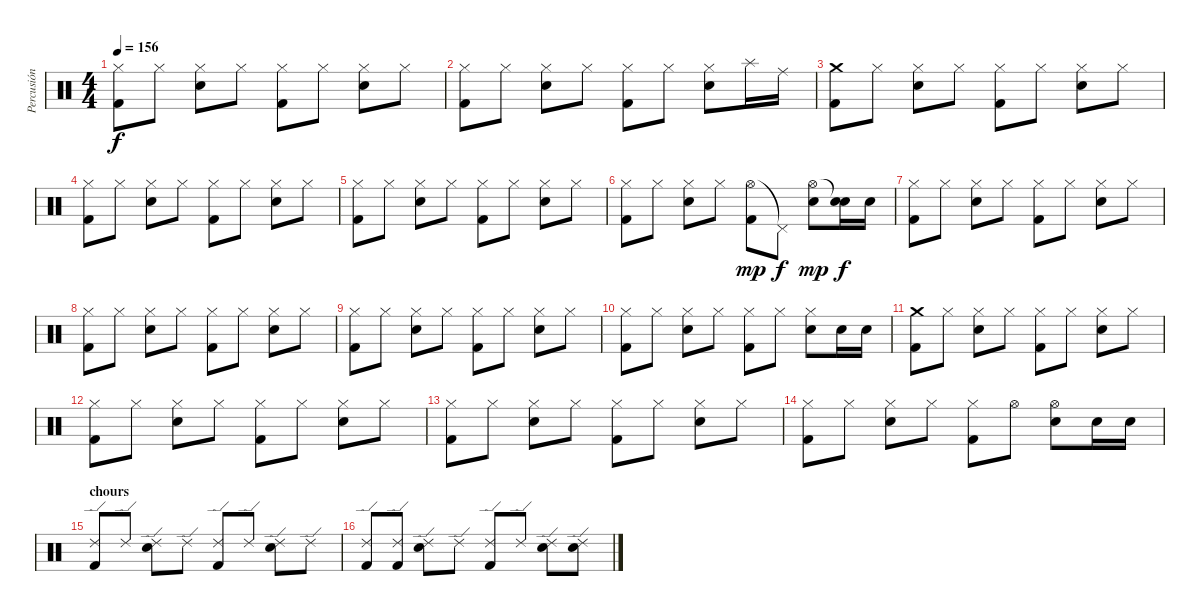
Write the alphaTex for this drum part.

\track ("Percusión" "Percusión") {instrument percussion}
\staff {score}
\articulation defaults
\ts (4 4)
\tempo 156
\clef neutral
\ks c
("Hi-Hat (closed)" "Kick (hit) 2").8{dy f} "Hi-Hat (closed)".8 ("Hi-Hat (closed)" "Electric Snare (hit)").8 "Hi-Hat (closed)".8 ("Hi-Hat (closed)" "Kick (hit) 2").8 "Hi-Hat (closed)".8 ("Hi-Hat (closed)" "Electric Snare (hit)").8 "Hi-Hat (closed)".8 |
("Hi-Hat (closed)" "Kick (hit) 2").8 "Hi-Hat (closed)".8 ("Hi-Hat (closed)" "Electric Snare (hit)").8 "Hi-Hat (closed)".8 ("Hi-Hat (closed)" "Kick (hit) 2").8 "Hi-Hat (closed)".8 ("Hi-Hat (closed)" "Electric Snare (hit)").8 "Splash (hit)".16 "Ride (middle)".16 |
("Crash medium (hit)" "Kick (hit) 2").8 "Hi-Hat (closed)".8 ("Hi-Hat (closed)" "Electric Snare (hit)").8 "Hi-Hat (closed)".8 ("Hi-Hat (closed)" "Kick (hit) 2").8 "Hi-Hat (closed)".8 ("Hi-Hat (closed)" "Electric Snare (hit)").8 "Hi-Hat (closed)".8 |
("Hi-Hat (closed)" "Kick (hit) 2").8 "Hi-Hat (closed)".8 ("Hi-Hat (closed)" "Electric Snare (hit)").8 "Hi-Hat (closed)".8 ("Hi-Hat (closed)" "Kick (hit) 2").8 "Hi-Hat (closed)".8 ("Hi-Hat (closed)" "Electric Snare (hit)").8 "Hi-Hat (closed)".8 |
("Hi-Hat (closed)" "Kick (hit) 2").8 "Hi-Hat (closed)".8 ("Hi-Hat (closed)" "Electric Snare (hit)").8 "Hi-Hat (closed)".8 ("Hi-Hat (closed)" "Kick (hit) 2").8 "Hi-Hat (closed)".8 ("Hi-Hat (closed)" "Electric Snare (hit)").8 "Hi-Hat (closed)".8 |
("Hi-Hat (closed)" "Kick (hit) 2").8 "Hi-Hat (closed)".8 ("Hi-Hat (closed)" "Electric Snare (hit)").8 "Hi-Hat (closed)".8 ("Hi-Hat (open)" "Kick (hit) 2").8{dy mp} "Pedal Hi-Hat (hit)"{t}.8{dy f} ("Hi-Hat (open)" "Electric Snare (hit)").8{dy mp} ("Snare (hit)"{t} "Electric Snare (hit)").16{dy f} "Electric Snare (hit)".16 |
("Hi-Hat (closed)" "Kick (hit) 2").8 "Hi-Hat (closed)".8 ("Hi-Hat (closed)" "Electric Snare (hit)").8 "Hi-Hat (closed)".8 ("Hi-Hat (closed)" "Kick (hit) 2").8 "Hi-Hat (closed)".8 ("Hi-Hat (closed)" "Electric Snare (hit)").8 "Hi-Hat (closed)".8 |
("Hi-Hat (closed)" "Kick (hit) 2").8 "Hi-Hat (closed)".8 ("Hi-Hat (closed)" "Electric Snare (hit)").8 "Hi-Hat (closed)".8 ("Hi-Hat (closed)" "Kick (hit) 2").8 "Hi-Hat (closed)".8 ("Hi-Hat (closed)" "Electric Snare (hit)").8 "Hi-Hat (closed)".8 |
("Hi-Hat (closed)" "Kick (hit) 2").8 "Hi-Hat (closed)".8 ("Hi-Hat (closed)" "Electric Snare (hit)").8 "Hi-Hat (closed)".8 ("Hi-Hat (closed)" "Kick (hit) 2").8 "Hi-Hat (closed)".8 ("Hi-Hat (closed)" "Electric Snare (hit)").8 "Hi-Hat (closed)".8 |
("Hi-Hat (closed)" "Kick (hit) 2").8 "Hi-Hat (closed)".8 ("Hi-Hat (closed)" "Electric Snare (hit)").8 "Hi-Hat (closed)".8 ("Hi-Hat (closed)" "Kick (hit) 2").8 "Hi-Hat (closed)".8 ("Hi-Hat (closed)" "Electric Snare (hit)").8 "Electric Snare (hit)".16 "Electric Snare (hit)".16 |
("Crash medium (hit)" "Kick (hit) 2").8 "Hi-Hat (closed)".8 ("Hi-Hat (closed)" "Electric Snare (hit)").8 "Hi-Hat (closed)".8 ("Hi-Hat (closed)" "Kick (hit) 2").8 "Hi-Hat (closed)".8 ("Hi-Hat (closed)" "Electric Snare (hit)").8 "Hi-Hat (closed)".8 |
("Hi-Hat (closed)" "Kick (hit) 2").8 "Hi-Hat (closed)".8 ("Hi-Hat (closed)" "Electric Snare (hit)").8 "Hi-Hat (closed)".8 ("Hi-Hat (closed)" "Kick (hit) 2").8 "Hi-Hat (closed)".8 ("Hi-Hat (closed)" "Electric Snare (hit)").8 "Hi-Hat (closed)".8 |
("Hi-Hat (closed)" "Kick (hit) 2").8 "Hi-Hat (closed)".8 ("Hi-Hat (closed)" "Electric Snare (hit)").8 "Hi-Hat (closed)".8 ("Hi-Hat (closed)" "Kick (hit) 2").8 "Hi-Hat (closed)".8 ("Hi-Hat (closed)" "Electric Snare (hit)").8 "Hi-Hat (closed)".8 |
("Hi-Hat (closed)" "Kick (hit) 2").8 "Hi-Hat (closed)".8 ("Hi-Hat (closed)" "Electric Snare (hit)").8 "Hi-Hat (closed)".8 ("Hi-Hat (closed)" "Kick (hit) 2").8 "Hi-Hat (open)".8 ("Hi-Hat (open)" "Electric Snare (hit)").8 "Electric Snare (hit)".16 "Electric Snare (hit)".16 |
\section ("" "chours")
("Ride (edge) 2" "Kick (hit) 2").8 "Ride (edge) 2".8 ("Ride (edge) 2" "Electric Snare (hit)").8 "Ride (edge) 2".8 ("Ride (edge) 2" "Kick (hit) 2").8 "Ride (edge) 2".8 ("Ride (edge) 2" "Electric Snare (hit)").8 "Ride (edge) 2".8 |
("Ride (edge) 2" "Kick (hit) 2").8 ("Ride (edge) 2" "Kick (hit) 2").8 ("Ride (edge) 2" "Electric Snare (hit)").8 "Ride (edge) 2".8 ("Ride (edge) 2" "Kick (hit) 2").8 "Ride (edge) 2".8 ("Ride (edge) 2" "Electric Snare (hit)").8 ("Ride (edge) 2" "Electric Snare (hit)").8
